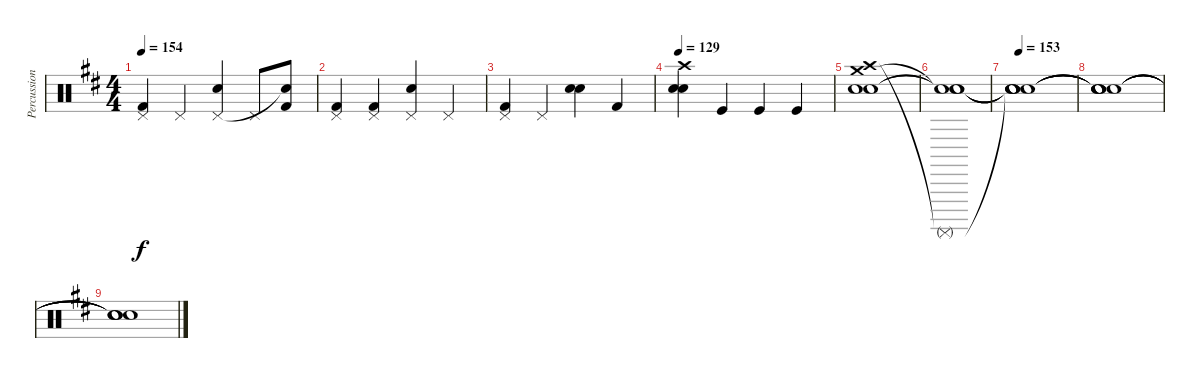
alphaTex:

\track ("Percussion" "Percussion") {instrument percussion}
\staff {score}
\articulation defaults
\ts (4 4)
\tempo 154
\clef neutral
\ks d
("Kick (hit) 2" "Pedal Hi-Hat (hit)").4{dy f} "Pedal Hi-Hat (hit)".4 ("Electric Snare (hit)" "Pedal Hi-Hat (hit)").4 "Pedal Hi-Hat (hit)".8 ("Kick (hit) 2" "Snare (hit)"{t}).8 |
("Kick (hit) 2" "Pedal Hi-Hat (hit)").4 ("Kick (hit) 2" "Pedal Hi-Hat (hit)").4 ("Electric Snare (hit)" "Pedal Hi-Hat (hit)").4 "Pedal Hi-Hat (hit)".4 |
("Kick (hit) 2" "Pedal Hi-Hat (hit)").4 "Pedal Hi-Hat (hit)".4 ("Electric Snare (hit)" "Electric Snare (hit)").4 "Kick (hit) 2".4 |
\tempo 129
("Snare (hit) 2" "Electric Snare (hit)" "Crash high (hit)").4 "Kick (hit)".4 "Kick (hit)".4 "Kick (hit)".4 |
("Snare (hit) 2" "Electric Snare (hit)" "Crash high (hit)" "Crash medium (hit)").1 |
("Snare (hit)"{t} "Snare (hit)"{t} "Surdo (mute)"{t} "Snare (hit)"{t}).1 |
\tempo 153
("Snare (hit)"{t} "Snare (hit)"{t} "Snare (hit)"{t} "Snare (hit)"{t}).1 |
("Snare (hit)"{t} "Snare (hit)"{t} "Snare (hit)"{t} "Snare (hit)"{t}).1 |
("Snare (hit)"{t} "Snare (hit)"{t} "Snare (hit)"{t} "Snare (hit)"{t}).1
